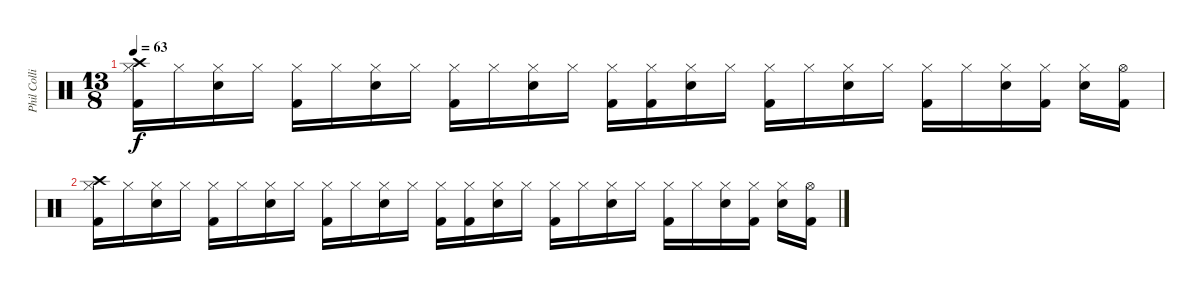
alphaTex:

\track ("Phil Collins (Percussion)" "Phil Colli") {instrument percussion}
\staff {score}
\articulation defaults
\ts (13 8)
\tempo 63
\clef neutral
\ks c
("Crash high (hit)" "Hi-Hat (closed)" "Kick (hit) 2").16{dy f} "Hi-Hat (closed)".16 ("Snare (hit) 2" "Hi-Hat (closed)").16 "Hi-Hat (closed)".16 ("Hi-Hat (closed)" "Kick (hit) 2").16 "Hi-Hat (closed)".16 ("Snare (hit) 2" "Hi-Hat (closed)").16 "Hi-Hat (closed)".16 ("Hi-Hat (closed)" "Kick (hit) 2").16 "Hi-Hat (closed)".16 ("Snare (hit) 2" "Hi-Hat (closed)").16 "Hi-Hat (closed)".16 ("Hi-Hat (closed)" "Kick (hit) 2").16 ("Hi-Hat (closed)" "Kick (hit) 2").16 ("Snare (hit) 2" "Hi-Hat (closed)").16 "Hi-Hat (closed)".16 ("Hi-Hat (closed)" "Kick (hit) 2").16 "Hi-Hat (closed)".16 ("Snare (hit) 2" "Hi-Hat (closed)").16 "Hi-Hat (closed)".16 ("Hi-Hat (closed)" "Kick (hit) 2").16 "Hi-Hat (closed)".16 ("Snare (hit) 2" "Hi-Hat (closed)").16 ("Hi-Hat (closed)" "Kick (hit) 2").16 ("Snare (hit) 2" "Hi-Hat (closed)").16 ("Hi-Hat (open)" "Kick (hit) 2").16 |
("Crash high (hit)" "Hi-Hat (closed)" "Kick (hit) 2").16 "Hi-Hat (closed)".16 ("Snare (hit) 2" "Hi-Hat (closed)").16 "Hi-Hat (closed)".16 ("Hi-Hat (closed)" "Kick (hit) 2").16 "Hi-Hat (closed)".16 ("Snare (hit) 2" "Hi-Hat (closed)").16 "Hi-Hat (closed)".16 ("Hi-Hat (closed)" "Kick (hit) 2").16 "Hi-Hat (closed)".16 ("Snare (hit) 2" "Hi-Hat (closed)").16 "Hi-Hat (closed)".16 ("Hi-Hat (closed)" "Kick (hit) 2").16 ("Hi-Hat (closed)" "Kick (hit) 2").16 ("Snare (hit) 2" "Hi-Hat (closed)").16 "Hi-Hat (closed)".16 ("Hi-Hat (closed)" "Kick (hit) 2").16 "Hi-Hat (closed)".16 ("Snare (hit) 2" "Hi-Hat (closed)").16 "Hi-Hat (closed)".16 ("Hi-Hat (closed)" "Kick (hit) 2").16 "Hi-Hat (closed)".16 ("Snare (hit) 2" "Hi-Hat (closed)").16 ("Hi-Hat (closed)" "Kick (hit) 2").16 ("Snare (hit) 2" "Hi-Hat (closed)").16 ("Hi-Hat (open)" "Kick (hit) 2").16
